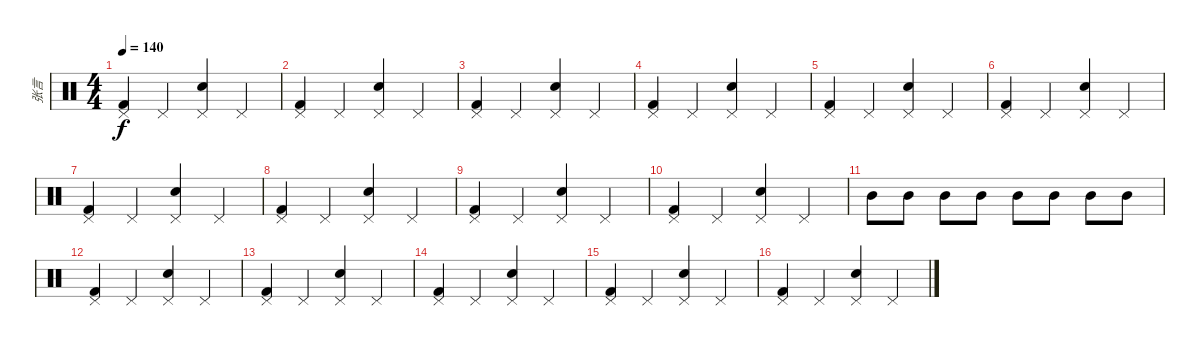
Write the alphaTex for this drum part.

\track ("张言" "张言") {instrument percussion}
\staff {score}
\articulation defaults
\ts (4 4)
\tempo 140
\clef neutral
\ks c
("Kick (hit) 2" "Pedal Hi-Hat (hit)").4{dy f} "Pedal Hi-Hat (hit)".4 ("Snare (hit) 2" "Pedal Hi-Hat (hit)").4 "Pedal Hi-Hat (hit)".4 |
("Kick (hit) 2" "Pedal Hi-Hat (hit)").4 "Pedal Hi-Hat (hit)".4 ("Snare (hit) 2" "Pedal Hi-Hat (hit)").4 "Pedal Hi-Hat (hit)".4 |
("Kick (hit) 2" "Pedal Hi-Hat (hit)").4 "Pedal Hi-Hat (hit)".4 ("Snare (hit) 2" "Pedal Hi-Hat (hit)").4 "Pedal Hi-Hat (hit)".4 |
("Kick (hit) 2" "Pedal Hi-Hat (hit)").4 "Pedal Hi-Hat (hit)".4 ("Snare (hit) 2" "Pedal Hi-Hat (hit)").4 "Pedal Hi-Hat (hit)".4 |
("Kick (hit) 2" "Pedal Hi-Hat (hit)").4 "Pedal Hi-Hat (hit)".4 ("Snare (hit) 2" "Pedal Hi-Hat (hit)").4 "Pedal Hi-Hat (hit)".4 |
("Kick (hit) 2" "Pedal Hi-Hat (hit)").4 "Pedal Hi-Hat (hit)".4 ("Snare (hit) 2" "Pedal Hi-Hat (hit)").4 "Pedal Hi-Hat (hit)".4 |
("Kick (hit) 2" "Pedal Hi-Hat (hit)").4 "Pedal Hi-Hat (hit)".4 ("Snare (hit) 2" "Pedal Hi-Hat (hit)").4 "Pedal Hi-Hat (hit)".4 |
("Kick (hit) 2" "Pedal Hi-Hat (hit)").4 "Pedal Hi-Hat (hit)".4 ("Snare (hit) 2" "Pedal Hi-Hat (hit)").4 "Pedal Hi-Hat (hit)".4 |
("Kick (hit) 2" "Pedal Hi-Hat (hit)").4 "Pedal Hi-Hat (hit)".4 ("Snare (hit) 2" "Pedal Hi-Hat (hit)").4 "Pedal Hi-Hat (hit)".4 |
("Kick (hit) 2" "Pedal Hi-Hat (hit)").4 "Pedal Hi-Hat (hit)".4 ("Snare (hit) 2" "Pedal Hi-Hat (hit)").4 "Pedal Hi-Hat (hit)".4 |
"Mid Tom (hit)".8 "Mid Tom (hit)".8 "Mid Tom (hit)".8 "Mid Tom (hit)".8 "Mid Tom (hit)".8 "Mid Tom (hit)".8 "Mid Tom (hit)".8 "Mid Tom (hit)".8 |
("Kick (hit) 2" "Pedal Hi-Hat (hit)").4 "Pedal Hi-Hat (hit)".4 ("Snare (hit) 2" "Pedal Hi-Hat (hit)").4 "Pedal Hi-Hat (hit)".4 |
("Kick (hit) 2" "Pedal Hi-Hat (hit)").4 "Pedal Hi-Hat (hit)".4 ("Snare (hit) 2" "Pedal Hi-Hat (hit)").4 "Pedal Hi-Hat (hit)".4 |
("Kick (hit) 2" "Pedal Hi-Hat (hit)").4 "Pedal Hi-Hat (hit)".4 ("Snare (hit) 2" "Pedal Hi-Hat (hit)").4 "Pedal Hi-Hat (hit)".4 |
("Kick (hit) 2" "Pedal Hi-Hat (hit)").4 "Pedal Hi-Hat (hit)".4 ("Snare (hit) 2" "Pedal Hi-Hat (hit)").4 "Pedal Hi-Hat (hit)".4 |
("Kick (hit) 2" "Pedal Hi-Hat (hit)").4 "Pedal Hi-Hat (hit)".4 ("Snare (hit) 2" "Pedal Hi-Hat (hit)").4 "Pedal Hi-Hat (hit)".4
